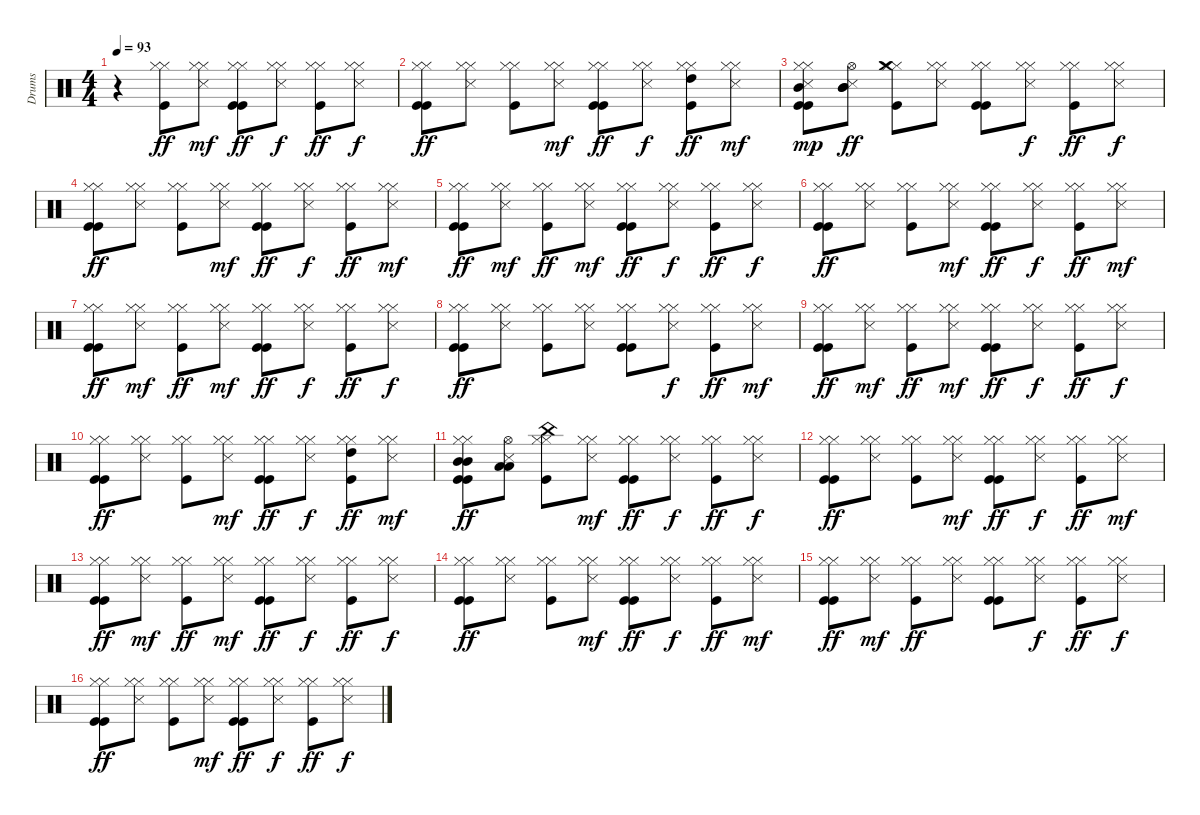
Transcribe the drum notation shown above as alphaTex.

\track ("Drums" "Drums") {instrument percussion}
\staff {score}
\articulation defaults
\ts (4 4)
\tempo 93
\clef neutral
\ks c
r.4{dy ff} ("Hi-Hat (closed)" "Kick (hit)" "Hi-Hat (closed)").8 ("Hi-Hat (closed)" "Snare (side stick) 3" "Hi-Hat (closed)").8{dy mf} ("Kick (hit)" "Hi-Hat (closed)" "Kick (hit)" "Hi-Hat (closed)").8{dy ff} ("Hi-Hat (closed)" "Snare (side stick) 3" "Hi-Hat (closed)").8{dy f} ("Hi-Hat (closed)" "Kick (hit)" "Hi-Hat (closed)").8{dy ff} ("Snare (side stick) 3" "Hi-Hat (closed)" "Hi-Hat (closed)").8{dy f} |
("Kick (hit)" "Hi-Hat (closed)" "Kick (hit)" "Hi-Hat (closed)").8{dy ff} ("Snare (side stick) 3" "Hi-Hat (closed)" "Hi-Hat (closed)").8 ("Hi-Hat (closed)" "Kick (hit)" "Hi-Hat (closed)").8 ("Hi-Hat (closed)" "Snare (side stick) 3" "Hi-Hat (closed)").8{dy mf} ("Kick (hit)" "Hi-Hat (closed)" "Kick (hit)" "Hi-Hat (closed)").8{dy ff} ("Snare (side stick) 3" "Hi-Hat (closed)" "Hi-Hat (closed)").8{dy f} ("Hi-Hat (closed)" "Kick (hit)" "Hi-Hat (closed)" "High Tom (hit)").8{dy ff} ("Snare (side stick) 3" "Hi-Hat (closed)" "Hi-Hat (closed)").8{dy mf} |
("Kick (hit)" "Hi-Hat (closed)" "Mid Tom (hit)" "Kick (hit)" "Snare (side stick) 3" "Hi-Hat (closed)").8{dy mp} ("Hi-Hat (open)" "Mid Tom (hit)" "Snare (side stick) 3" "Mid Tom (hit)").8{dy ff} ("Hi-Hat (closed)" "Crash medium (hit)" "Kick (hit)" "Hi-Hat (closed)").8 ("Snare (side stick) 3" "Hi-Hat (closed)" "Hi-Hat (closed)").8 ("Kick (hit)" "Hi-Hat (closed)" "Kick (hit)" "Hi-Hat (closed)").8 ("Snare (side stick) 3" "Hi-Hat (closed)" "Hi-Hat (closed)").8{dy f} ("Hi-Hat (closed)" "Kick (hit)" "Hi-Hat (closed)").8{dy ff} ("Hi-Hat (closed)" "Snare (side stick) 3" "Hi-Hat (closed)").8{dy f} |
("Kick (hit)" "Hi-Hat (closed)" "Kick (hit)" "Hi-Hat (closed)").8{dy ff} ("Snare (side stick) 3" "Hi-Hat (closed)" "Hi-Hat (closed)").8 ("Hi-Hat (closed)" "Kick (hit)" "Hi-Hat (closed)").8 ("Hi-Hat (closed)" "Snare (side stick) 3" "Hi-Hat (closed)").8{dy mf} ("Kick (hit)" "Hi-Hat (closed)" "Kick (hit)" "Hi-Hat (closed)").8{dy ff} ("Hi-Hat (closed)" "Snare (side stick) 3" "Hi-Hat (closed)").8{dy f} ("Hi-Hat (closed)" "Kick (hit)" "Hi-Hat (closed)").8{dy ff} ("Hi-Hat (closed)" "Snare (side stick) 3" "Hi-Hat (closed)").8{dy mf} |
("Kick (hit)" "Hi-Hat (closed)" "Kick (hit)" "Hi-Hat (closed)").8{dy ff} ("Hi-Hat (closed)" "Snare (side stick) 3" "Hi-Hat (closed)").8{dy mf} ("Hi-Hat (closed)" "Kick (hit)" "Hi-Hat (closed)").8{dy ff} ("Hi-Hat (closed)" "Snare (side stick) 3" "Hi-Hat (closed)").8{dy mf} ("Kick (hit)" "Hi-Hat (closed)" "Kick (hit)" "Hi-Hat (closed)").8{dy ff} ("Snare (side stick) 3" "Hi-Hat (closed)" "Hi-Hat (closed)").8{dy f} ("Hi-Hat (closed)" "Kick (hit)" "Hi-Hat (closed)").8{dy ff} ("Hi-Hat (closed)" "Snare (side stick) 3" "Hi-Hat (closed)").8{dy f} |
("Kick (hit)" "Hi-Hat (closed)" "Kick (hit)" "Hi-Hat (closed)").8{dy ff} ("Snare (side stick) 3" "Hi-Hat (closed)" "Hi-Hat (closed)").8 ("Hi-Hat (closed)" "Kick (hit)" "Hi-Hat (closed)").8 ("Hi-Hat (closed)" "Snare (side stick) 3" "Hi-Hat (closed)").8{dy mf} ("Kick (hit)" "Hi-Hat (closed)" "Kick (hit)" "Hi-Hat (closed)").8{dy ff} ("Hi-Hat (closed)" "Snare (side stick) 3" "Hi-Hat (closed)").8{dy f} ("Hi-Hat (closed)" "Kick (hit)" "Hi-Hat (closed)").8{dy ff} ("Snare (side stick) 3" "Hi-Hat (closed)" "Hi-Hat (closed)").8{dy mf} |
("Kick (hit)" "Hi-Hat (closed)" "Kick (hit)" "Hi-Hat (closed)").8{dy ff} ("Hi-Hat (closed)" "Snare (side stick) 3" "Hi-Hat (closed)").8{dy mf} ("Hi-Hat (closed)" "Kick (hit)" "Hi-Hat (closed)").8{dy ff} ("Hi-Hat (closed)" "Snare (side stick) 3" "Hi-Hat (closed)").8{dy mf} ("Kick (hit)" "Hi-Hat (closed)" "Kick (hit)" "Hi-Hat (closed)").8{dy ff} ("Hi-Hat (closed)" "Snare (side stick) 3" "Hi-Hat (closed)").8{dy f} ("Hi-Hat (closed)" "Kick (hit)" "Hi-Hat (closed)").8{dy ff} ("Snare (side stick) 3" "Hi-Hat (closed)" "Hi-Hat (closed)").8{dy f} |
("Kick (hit)" "Hi-Hat (closed)" "Kick (hit)" "Hi-Hat (closed)").8{dy ff} ("Snare (side stick) 3" "Hi-Hat (closed)" "Hi-Hat (closed)").8 ("Hi-Hat (closed)" "Kick (hit)" "Hi-Hat (closed)").8 ("Snare (side stick) 3" "Hi-Hat (closed)" "Hi-Hat (closed)").8 ("Kick (hit)" "Hi-Hat (closed)" "Kick (hit)" "Hi-Hat (closed)").8 ("Hi-Hat (closed)" "Snare (side stick) 3" "Hi-Hat (closed)").8{dy f} ("Hi-Hat (closed)" "Kick (hit)" "Hi-Hat (closed)").8{dy ff} ("Hi-Hat (closed)" "Snare (side stick) 3" "Hi-Hat (closed)").8{dy mf} |
("Kick (hit)" "Hi-Hat (closed)" "Kick (hit)" "Hi-Hat (closed)").8{dy ff} ("Snare (side stick) 3" "Hi-Hat (closed)" "Hi-Hat (closed)").8{dy mf} ("Hi-Hat (closed)" "Kick (hit)" "Hi-Hat (closed)").8{dy ff} ("Hi-Hat (closed)" "Snare (side stick) 3" "Hi-Hat (closed)").8{dy mf} ("Kick (hit)" "Hi-Hat (closed)" "Kick (hit)" "Hi-Hat (closed)").8{dy ff} ("Snare (side stick) 3" "Hi-Hat (closed)" "Hi-Hat (closed)").8{dy f} ("Hi-Hat (closed)" "Kick (hit)" "Hi-Hat (closed)").8{dy ff} ("Snare (side stick) 3" "Hi-Hat (closed)" "Hi-Hat (closed)").8{dy f} |
("Kick (hit)" "Hi-Hat (closed)" "Kick (hit)" "Hi-Hat (closed)").8{dy ff} ("Hi-Hat (closed)" "Snare (side stick) 3" "Hi-Hat (closed)").8 ("Hi-Hat (closed)" "Kick (hit)" "Hi-Hat (closed)").8 ("Hi-Hat (closed)" "Snare (side stick) 3" "Hi-Hat (closed)").8{dy mf} ("Kick (hit)" "Hi-Hat (closed)" "Kick (hit)" "Hi-Hat (closed)").8{dy ff} ("Snare (side stick) 3" "Hi-Hat (closed)" "Hi-Hat (closed)").8{dy f} ("Hi-Hat (closed)" "Kick (hit)" "Hi-Hat (closed)" "High Tom (hit)").8{dy ff} ("Hi-Hat (closed)" "Snare (side stick) 3" "Hi-Hat (closed)").8{dy mf} |
("Kick (hit)" "Mid Tom (hit)" "Hi-Hat (closed)" "Kick (hit)" "Hi-Hat (closed)" "Mid Tom (hit)").8{dy ff} ("Snare (side stick) 3" "Low Tom (hit)" "Hi-Hat (open)" "Low Tom (hit)").8 ("China (hit)" "Hi-Hat (closed)" "Kick (hit)" "Hi-Hat (closed)").8 ("Hi-Hat (closed)" "Snare (side stick) 3" "Hi-Hat (closed)").8{dy mf} ("Kick (hit)" "Hi-Hat (closed)" "Kick (hit)" "Hi-Hat (closed)").8{dy ff} ("Hi-Hat (closed)" "Snare (side stick) 3" "Hi-Hat (closed)").8{dy f} ("Hi-Hat (closed)" "Kick (hit)" "Hi-Hat (closed)").8{dy ff} ("Snare (side stick) 3" "Hi-Hat (closed)" "Hi-Hat (closed)").8{dy f} |
("Kick (hit)" "Hi-Hat (closed)" "Kick (hit)" "Hi-Hat (closed)").8{dy ff} ("Snare (side stick) 3" "Hi-Hat (closed)" "Hi-Hat (closed)").8 ("Hi-Hat (closed)" "Kick (hit)" "Hi-Hat (closed)").8 ("Hi-Hat (closed)" "Snare (side stick) 3" "Hi-Hat (closed)").8{dy mf} ("Kick (hit)" "Hi-Hat (closed)" "Kick (hit)" "Hi-Hat (closed)").8{dy ff} ("Hi-Hat (closed)" "Snare (side stick) 3" "Hi-Hat (closed)").8{dy f} ("Hi-Hat (closed)" "Kick (hit)" "Hi-Hat (closed)").8{dy ff} ("Snare (side stick) 3" "Hi-Hat (closed)" "Hi-Hat (closed)").8{dy mf} |
("Kick (hit)" "Hi-Hat (closed)" "Kick (hit)" "Hi-Hat (closed)").8{dy ff} ("Hi-Hat (closed)" "Snare (side stick) 3" "Hi-Hat (closed)").8{dy mf} ("Hi-Hat (closed)" "Kick (hit)" "Hi-Hat (closed)").8{dy ff} ("Hi-Hat (closed)" "Snare (side stick) 3" "Hi-Hat (closed)").8{dy mf} ("Kick (hit)" "Hi-Hat (closed)" "Kick (hit)" "Hi-Hat (closed)").8{dy ff} ("Snare (side stick) 3" "Hi-Hat (closed)" "Hi-Hat (closed)").8{dy f} ("Hi-Hat (closed)" "Kick (hit)" "Hi-Hat (closed)").8{dy ff} ("Snare (side stick) 3" "Hi-Hat (closed)" "Hi-Hat (closed)").8{dy f} |
("Kick (hit)" "Hi-Hat (closed)" "Kick (hit)" "Hi-Hat (closed)").8{dy ff} ("Hi-Hat (closed)" "Snare (side stick) 3" "Hi-Hat (closed)").8 ("Hi-Hat (closed)" "Kick (hit)" "Hi-Hat (closed)").8 ("Hi-Hat (closed)" "Snare (side stick) 3" "Hi-Hat (closed)").8{dy mf} ("Kick (hit)" "Hi-Hat (closed)" "Kick (hit)" "Hi-Hat (closed)").8{dy ff} ("Snare (side stick) 3" "Hi-Hat (closed)" "Hi-Hat (closed)").8{dy f} ("Hi-Hat (closed)" "Kick (hit)" "Hi-Hat (closed)").8{dy ff} ("Hi-Hat (closed)" "Snare (side stick) 3" "Hi-Hat (closed)").8{dy mf} |
("Kick (hit)" "Hi-Hat (closed)" "Kick (hit)" "Hi-Hat (closed)").8{dy ff} ("Snare (side stick) 3" "Hi-Hat (closed)" "Hi-Hat (closed)").8{dy mf} ("Hi-Hat (closed)" "Kick (hit)" "Hi-Hat (closed)").8{dy ff} ("Snare (side stick) 3" "Hi-Hat (closed)" "Hi-Hat (closed)").8 ("Kick (hit)" "Hi-Hat (closed)" "Kick (hit)" "Hi-Hat (closed)").8 ("Hi-Hat (closed)" "Snare (side stick) 3" "Hi-Hat (closed)").8{dy f} ("Hi-Hat (closed)" "Kick (hit)" "Hi-Hat (closed)").8{dy ff} ("Snare (side stick) 3" "Hi-Hat (closed)" "Hi-Hat (closed)").8{dy f} |
("Kick (hit)" "Hi-Hat (closed)" "Kick (hit)" "Hi-Hat (closed)").8{dy ff} ("Hi-Hat (closed)" "Snare (side stick) 3" "Hi-Hat (closed)").8 ("Hi-Hat (closed)" "Kick (hit)" "Hi-Hat (closed)").8 ("Hi-Hat (closed)" "Snare (side stick) 3" "Hi-Hat (closed)").8{dy mf} ("Kick (hit)" "Hi-Hat (closed)" "Kick (hit)" "Hi-Hat (closed)").8{dy ff} ("Snare (side stick) 3" "Hi-Hat (closed)" "Hi-Hat (closed)").8{dy f} ("Hi-Hat (closed)" "Kick (hit)" "Hi-Hat (closed)").8{dy ff} ("Hi-Hat (closed)" "Snare (side stick) 3" "Hi-Hat (closed)").8{dy f}
